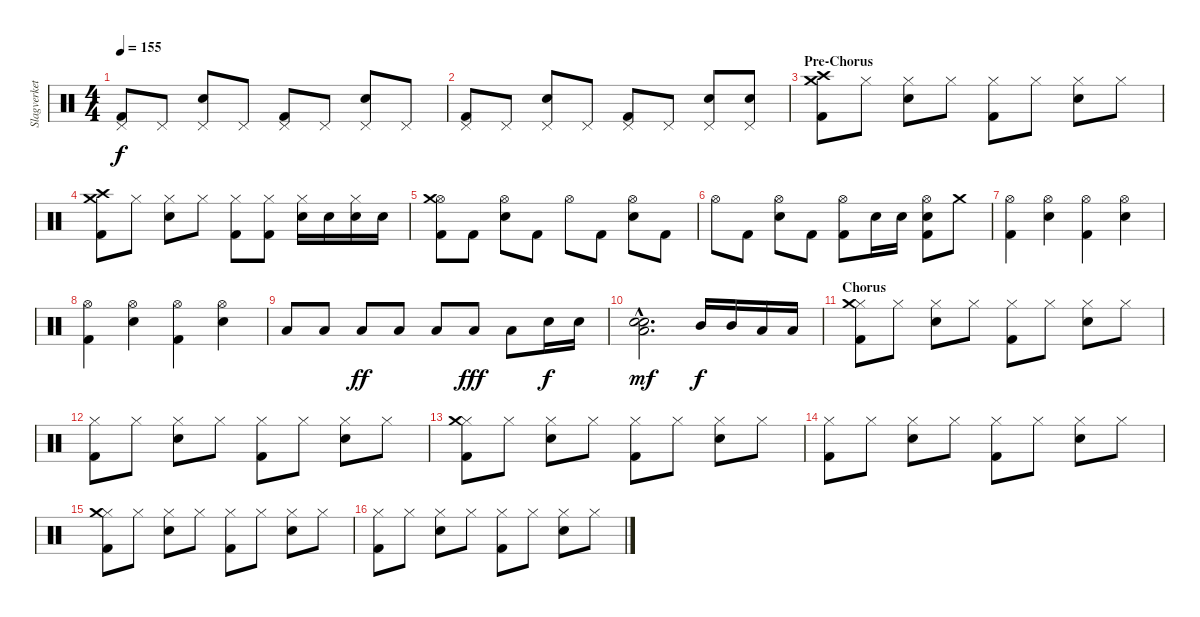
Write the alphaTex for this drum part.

\track ("Slagverket!" "Slagverket") {instrument percussion}
\staff {score}
\articulation defaults
\ts (4 4)
\tempo 155
\clef neutral
\ks c
("Pedal Hi-Hat (hit)" "Kick (hit) 2").8{dy f} "Pedal Hi-Hat (hit)".8 ("Pedal Hi-Hat (hit)" "Electric Snare (hit)").8 "Pedal Hi-Hat (hit)".8 ("Pedal Hi-Hat (hit)" "Kick (hit) 2").8 "Pedal Hi-Hat (hit)".8 ("Pedal Hi-Hat (hit)" "Electric Snare (hit)").8 "Pedal Hi-Hat (hit)".8 |
("Pedal Hi-Hat (hit)" "Kick (hit) 2").8 "Pedal Hi-Hat (hit)".8 ("Pedal Hi-Hat (hit)" "Electric Snare (hit)").8 "Pedal Hi-Hat (hit)".8 ("Pedal Hi-Hat (hit)" "Kick (hit) 2").8 "Pedal Hi-Hat (hit)".8 ("Pedal Hi-Hat (hit)" "Electric Snare (hit)").8 ("Pedal Hi-Hat (hit)" "Electric Snare (hit)").8 |
\section ("" "Pre-Chorus")
("Crash medium (hit)" "Crash high (hit)" "Kick (hit) 2").8 "Hi-Hat (closed)".8 ("Hi-Hat (closed)" "Electric Snare (hit)").8 "Hi-Hat (closed)".8 ("Hi-Hat (closed)" "Kick (hit) 2").8 "Hi-Hat (closed)".8 ("Hi-Hat (closed)" "Electric Snare (hit)").8 "Hi-Hat (closed)".8 |
("Crash medium (hit)" "Crash high (hit)" "Kick (hit) 2").8 "Hi-Hat (closed)".8 ("Hi-Hat (closed)" "Electric Snare (hit)").8 "Hi-Hat (closed)".8 ("Hi-Hat (closed)" "Kick (hit) 2").8 ("Hi-Hat (closed)" "Kick (hit) 2").8 ("Hi-Hat (closed)" "Electric Snare (hit)").16 "Electric Snare (hit)".16 ("Hi-Hat (closed)" "Electric Snare (hit)").16 "Electric Snare (hit)".16 |
("Hi-Hat (open)" "Crash medium (hit)" "Kick (hit) 2").8 "Kick (hit) 2".8 ("Hi-Hat (open)" "Electric Snare (hit)").8 "Kick (hit) 2".8 "Hi-Hat (open)".8 "Kick (hit) 2".8 ("Hi-Hat (open)" "Electric Snare (hit)").8 "Kick (hit) 2".8 |
"Hi-Hat (open)".8 "Kick (hit) 2".8 ("Hi-Hat (open)" "Electric Snare (hit)").8 "Kick (hit) 2".8 ("Hi-Hat (open)" "Kick (hit) 2").8 "Electric Snare (hit)".16 "Electric Snare (hit)".16 ("Hi-Hat (open)" "Electric Snare (hit)" "Kick (hit) 2").8 "Crash medium (hit)".8 |
("Hi-Hat (open)" "Kick (hit) 2").4 ("Hi-Hat (open)" "Electric Snare (hit)").4 ("Hi-Hat (open)" "Kick (hit) 2").4 ("Hi-Hat (open)" "Electric Snare (hit)").4 |
("Hi-Hat (open)" "Kick (hit) 2").4 ("Hi-Hat (open)" "Electric Snare (hit)").4 ("Hi-Hat (open)" "Kick (hit) 2").4 ("Hi-Hat (open)" "Electric Snare (hit)").4 |
"Low Floor Tom (hit)".8 "Low Floor Tom (hit)".8 "Low Floor Tom (hit)".8{dy ff} "Low Floor Tom (hit)".8 "Low Floor Tom (hit)".8 "Low Floor Tom (hit)".8{dy fff} "Low Floor Tom (hit)".8 "Electric Snare (hit)".16{dy f} "Electric Snare (hit)".16 |
("Snare (hit) 2"{hac} "Electric Snare (hit)"{hac} "Low Tom (hit)"{hac}).2{d dy mf} "Mid Tom (hit)".16{dy f} "Mid Tom (hit)".16 "Low Tom (hit)".16 "Low Tom (hit)".16 |
\section ("" "Chorus")
("Hi-Hat (closed)" "Crash medium (hit)" "Kick (hit) 2").8 "Hi-Hat (closed)".8 ("Hi-Hat (closed)" "Electric Snare (hit)").8 "Hi-Hat (closed)".8 ("Hi-Hat (closed)" "Kick (hit) 2").8 "Hi-Hat (closed)".8 ("Hi-Hat (closed)" "Electric Snare (hit)").8 "Hi-Hat (closed)".8 |
("Hi-Hat (closed)" "Kick (hit) 2").8 "Hi-Hat (closed)".8 ("Hi-Hat (closed)" "Electric Snare (hit)").8 "Hi-Hat (closed)".8 ("Hi-Hat (closed)" "Kick (hit) 2").8 "Hi-Hat (closed)".8 ("Hi-Hat (closed)" "Electric Snare (hit)").8 "Hi-Hat (closed)".8 |
("Hi-Hat (closed)" "Crash medium (hit)" "Kick (hit) 2").8 "Hi-Hat (closed)".8 ("Hi-Hat (closed)" "Electric Snare (hit)").8 "Hi-Hat (closed)".8 ("Hi-Hat (closed)" "Kick (hit) 2").8 "Hi-Hat (closed)".8 ("Hi-Hat (closed)" "Electric Snare (hit)").8 "Hi-Hat (closed)".8 |
("Hi-Hat (closed)" "Kick (hit) 2").8 "Hi-Hat (closed)".8 ("Hi-Hat (closed)" "Electric Snare (hit)").8 "Hi-Hat (closed)".8 ("Hi-Hat (closed)" "Kick (hit) 2").8 "Hi-Hat (closed)".8 ("Hi-Hat (closed)" "Electric Snare (hit)").8 "Hi-Hat (closed)".8 |
("Hi-Hat (closed)" "Crash medium (hit)" "Kick (hit) 2").8 "Hi-Hat (closed)".8 ("Hi-Hat (closed)" "Electric Snare (hit)").8 "Hi-Hat (closed)".8 ("Hi-Hat (closed)" "Kick (hit) 2").8 "Hi-Hat (closed)".8 ("Hi-Hat (closed)" "Electric Snare (hit)").8 "Hi-Hat (closed)".8 |
("Hi-Hat (closed)" "Kick (hit) 2").8 "Hi-Hat (closed)".8 ("Hi-Hat (closed)" "Electric Snare (hit)").8 "Hi-Hat (closed)".8 ("Hi-Hat (closed)" "Kick (hit) 2").8 "Hi-Hat (closed)".8 ("Hi-Hat (closed)" "Electric Snare (hit)").8 "Hi-Hat (closed)".8
